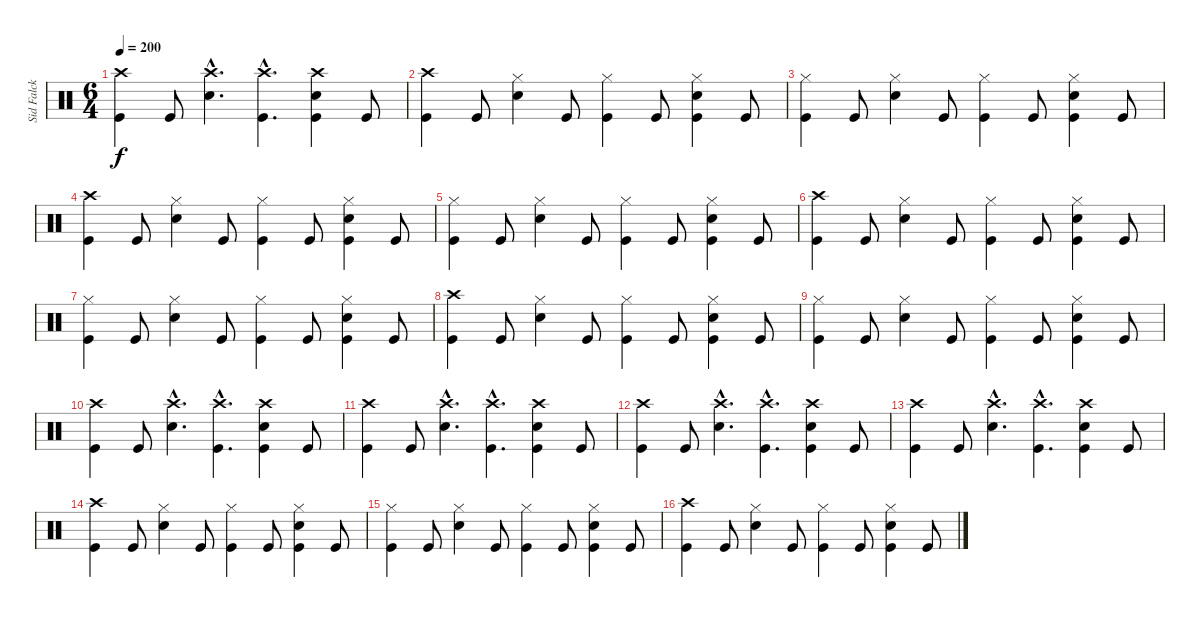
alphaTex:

\track ("Sid Falck - drums" "Sid Falck ") {instrument percussion}
\staff {score}
\articulation defaults
\ts (6 4)
\tempo 200
\clef neutral
\ks c
("Crash high (hit)" "Kick (hit)").4{dy f} "Kick (hit)".8 ("Crash high (hit)"{hac} "Electric Snare (hit)"{hac}).4{d} ("Crash high (hit)"{hac} "Kick (hit)"{hac}).4{d} ("Crash high (hit)" "Electric Snare (hit)" "Kick (hit)").4 "Kick (hit)".8 |
("Crash high (hit)" "Kick (hit)").4 "Kick (hit)".8 ("Hi-Hat (closed)" "Electric Snare (hit)").4 "Kick (hit)".8 ("Hi-Hat (closed)" "Kick (hit)").4 "Kick (hit)".8 ("Hi-Hat (closed)" "Electric Snare (hit)" "Kick (hit)").4 "Kick (hit)".8 |
("Hi-Hat (closed)" "Kick (hit)").4 "Kick (hit)".8 ("Hi-Hat (closed)" "Electric Snare (hit)").4 "Kick (hit)".8 ("Hi-Hat (closed)" "Kick (hit)").4 "Kick (hit)".8 ("Hi-Hat (closed)" "Electric Snare (hit)" "Kick (hit)").4 "Kick (hit)".8 |
("Crash high (hit)" "Kick (hit)").4 "Kick (hit)".8 ("Hi-Hat (closed)" "Electric Snare (hit)").4 "Kick (hit)".8 ("Hi-Hat (closed)" "Kick (hit)").4 "Kick (hit)".8 ("Hi-Hat (closed)" "Electric Snare (hit)" "Kick (hit)").4 "Kick (hit)".8 |
("Hi-Hat (closed)" "Kick (hit)").4 "Kick (hit)".8 ("Hi-Hat (closed)" "Electric Snare (hit)").4 "Kick (hit)".8 ("Hi-Hat (closed)" "Kick (hit)").4 "Kick (hit)".8 ("Hi-Hat (closed)" "Electric Snare (hit)" "Kick (hit)").4 "Kick (hit)".8 |
("Crash high (hit)" "Kick (hit)").4 "Kick (hit)".8 ("Hi-Hat (closed)" "Electric Snare (hit)").4 "Kick (hit)".8 ("Hi-Hat (closed)" "Kick (hit)").4 "Kick (hit)".8 ("Hi-Hat (closed)" "Electric Snare (hit)" "Kick (hit)").4 "Kick (hit)".8 |
("Hi-Hat (closed)" "Kick (hit)").4 "Kick (hit)".8 ("Hi-Hat (closed)" "Electric Snare (hit)").4 "Kick (hit)".8 ("Hi-Hat (closed)" "Kick (hit)").4 "Kick (hit)".8 ("Hi-Hat (closed)" "Electric Snare (hit)" "Kick (hit)").4 "Kick (hit)".8 |
("Crash high (hit)" "Kick (hit)").4 "Kick (hit)".8 ("Hi-Hat (closed)" "Electric Snare (hit)").4 "Kick (hit)".8 ("Hi-Hat (closed)" "Kick (hit)").4 "Kick (hit)".8 ("Hi-Hat (closed)" "Electric Snare (hit)" "Kick (hit)").4 "Kick (hit)".8 |
("Hi-Hat (closed)" "Kick (hit)").4 "Kick (hit)".8 ("Hi-Hat (closed)" "Electric Snare (hit)").4 "Kick (hit)".8 ("Hi-Hat (closed)" "Kick (hit)").4 "Kick (hit)".8 ("Hi-Hat (closed)" "Electric Snare (hit)" "Kick (hit)").4 "Kick (hit)".8 |
("Crash high (hit)" "Kick (hit)").4 "Kick (hit)".8 ("Crash high (hit)"{hac} "Electric Snare (hit)"{hac}).4{d} ("Crash high (hit)"{hac} "Kick (hit)"{hac}).4{d} ("Crash high (hit)" "Electric Snare (hit)" "Kick (hit)").4 "Kick (hit)".8 |
("Crash high (hit)" "Kick (hit)").4 "Kick (hit)".8 ("Crash high (hit)"{hac} "Electric Snare (hit)"{hac}).4{d} ("Crash high (hit)"{hac} "Kick (hit)"{hac}).4{d} ("Crash high (hit)" "Electric Snare (hit)" "Kick (hit)").4 "Kick (hit)".8 |
("Crash high (hit)" "Kick (hit)").4 "Kick (hit)".8 ("Crash high (hit)"{hac} "Electric Snare (hit)"{hac}).4{d} ("Crash high (hit)"{hac} "Kick (hit)"{hac}).4{d} ("Crash high (hit)" "Electric Snare (hit)" "Kick (hit)").4 "Kick (hit)".8 |
("Crash high (hit)" "Kick (hit)").4 "Kick (hit)".8 ("Crash high (hit)"{hac} "Electric Snare (hit)"{hac}).4{d} ("Crash high (hit)"{hac} "Kick (hit)"{hac}).4{d} ("Crash high (hit)" "Electric Snare (hit)" "Kick (hit)").4 "Kick (hit)".8 |
("Crash high (hit)" "Kick (hit)").4 "Kick (hit)".8 ("Hi-Hat (closed)" "Electric Snare (hit)").4 "Kick (hit)".8 ("Hi-Hat (closed)" "Kick (hit)").4 "Kick (hit)".8 ("Hi-Hat (closed)" "Electric Snare (hit)" "Kick (hit)").4 "Kick (hit)".8 |
("Hi-Hat (closed)" "Kick (hit)").4 "Kick (hit)".8 ("Hi-Hat (closed)" "Electric Snare (hit)").4 "Kick (hit)".8 ("Hi-Hat (closed)" "Kick (hit)").4 "Kick (hit)".8 ("Hi-Hat (closed)" "Electric Snare (hit)" "Kick (hit)").4 "Kick (hit)".8 |
("Crash high (hit)" "Kick (hit)").4 "Kick (hit)".8 ("Hi-Hat (closed)" "Electric Snare (hit)").4 "Kick (hit)".8 ("Hi-Hat (closed)" "Kick (hit)").4 "Kick (hit)".8 ("Hi-Hat (closed)" "Electric Snare (hit)" "Kick (hit)").4 "Kick (hit)".8
